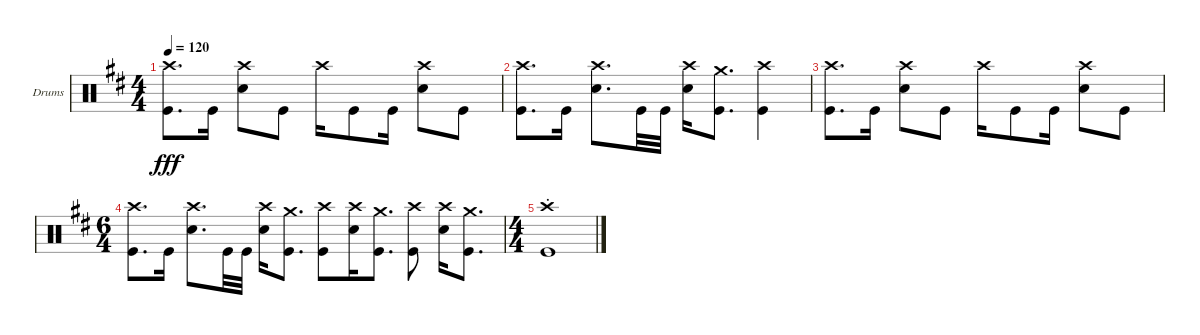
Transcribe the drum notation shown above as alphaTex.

\defaultSystemsLayout 4
\bracketExtendMode groupsimilarinstruments
\firstSystemTrackNameOrientation horizontal
\otherSystemsTrackNameOrientation horizontal
\track ("Garrett" "Drums") {instrument percussion}
\staff {score}
\articulation defaults
\ts (4 4)
\tempo 120
\clef neutral
\ks bminor
("Crash high (hit)" "Kick (hit)").8{d dy fff} "Kick (hit)".16 ("Snare (hit) 2" "Crash high (hit)").8 "Kick (hit)".8 "Crash high (hit)".16 "Kick (hit)".8 "Kick (hit)".16 ("Snare (hit) 2" "Crash high (hit)").8 "Kick (hit)".8 |
("Crash high (hit)" "Kick (hit)").8{d} "Kick (hit)".16 ("Snare (hit) 2" "Crash high (hit)").8{d} "Kick (hit)".32 "Kick (hit)".32 ("Snare (hit) 2" "Crash high (hit)").16 ("Kick (hit)" "Crash medium (hit)").8{d} ("Kick (hit)" "Crash high (hit)").4 |
("Crash high (hit)" "Kick (hit)").8{d} "Kick (hit)".16 ("Snare (hit) 2" "Crash high (hit)").8 "Kick (hit)".8 "Crash high (hit)".16 "Kick (hit)".8 "Kick (hit)".16 ("Snare (hit) 2" "Crash high (hit)").8 "Kick (hit)".8 |
\ts (6 4)
("Crash high (hit)" "Kick (hit)").8{d} "Kick (hit)".16 ("Snare (hit) 2" "Crash high (hit)").8{d} "Kick (hit)".32 "Kick (hit)".32 ("Snare (hit) 2" "Crash high (hit)").16 ("Kick (hit)" "Crash medium (hit)").8{d} ("Kick (hit)" "Crash high (hit)").8 ("Snare (hit) 2" "Crash high (hit)").16 ("Kick (hit)" "Crash medium (hit)").8{d} ("Kick (hit)" "Crash high (hit)").8 ("Snare (hit) 2" "Crash high (hit)").16 ("Kick (hit)" "Crash medium (hit)").8{d} |
\ts (4 4)
("Crash high (hit)"{st} "Kick (hit)").1
